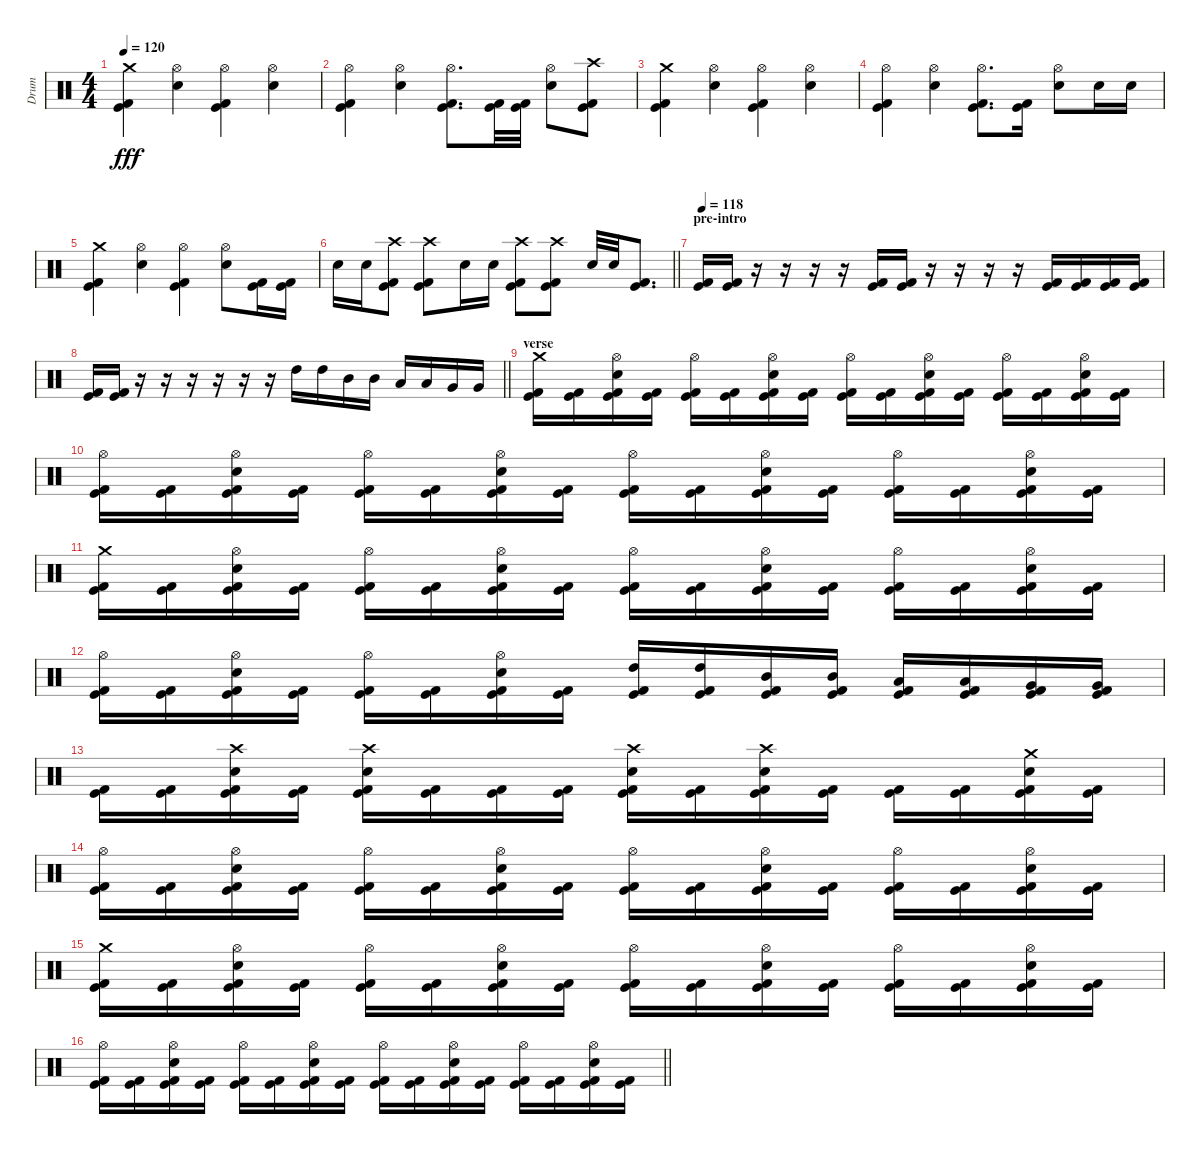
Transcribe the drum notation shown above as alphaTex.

\track ("Drum" "Drum") {instrument percussion}
\staff {score}
\articulation defaults
\ts (4 4)
\tempo 120
\clef neutral
\ks c
("Crash medium (hit)" "Kick (hit)" "Kick (hit) 2").4{dy fff} ("Electric Snare (hit)" "Hi-Hat (open)").4 ("Hi-Hat (open)" "Kick (hit)" "Kick (hit) 2").4 ("Electric Snare (hit)" "Hi-Hat (open)").4 |
("Hi-Hat (open)" "Kick (hit)" "Kick (hit) 2").4 ("Electric Snare (hit)" "Hi-Hat (open)").4 ("Hi-Hat (open)" "Kick (hit)" "Kick (hit) 2").8{d} ("Kick (hit)" "Kick (hit) 2").32 ("Kick (hit)" "Kick (hit) 2").32 ("Electric Snare (hit)" "Hi-Hat (open)").8 ("Crash high (hit)" "Kick (hit)" "Kick (hit) 2").8 |
("Crash medium (hit)" "Kick (hit)" "Kick (hit) 2").4 ("Electric Snare (hit)" "Hi-Hat (open)").4 ("Hi-Hat (open)" "Kick (hit)" "Kick (hit) 2").4 ("Electric Snare (hit)" "Hi-Hat (open)").4 |
("Hi-Hat (open)" "Kick (hit)" "Kick (hit) 2").4 ("Electric Snare (hit)" "Hi-Hat (open)").4 ("Hi-Hat (open)" "Kick (hit)" "Kick (hit) 2").8{d} ("Kick (hit)" "Kick (hit) 2").16 ("Electric Snare (hit)" "Hi-Hat (open)").8 "Electric Snare (hit)".16 "Electric Snare (hit)".16 |
("Crash medium (hit)" "Kick (hit)" "Kick (hit) 2").4 ("Electric Snare (hit)" "Hi-Hat (open)").4 ("Hi-Hat (open)" "Kick (hit)" "Kick (hit) 2").4 ("Electric Snare (hit)" "Hi-Hat (open)").8 ("Kick (hit)" "Kick (hit) 2").16 ("Kick (hit)" "Kick (hit) 2").16 |
\barLineRight lightlight "Electric Snare (hit)".16 "Electric Snare (hit)".16
("Crash high (hit)" "Kick (hit)" "Kick (hit) 2").8 ("Crash high (hit)" "Kick (hit)" "Kick (hit) 2").8 "Electric Snare (hit)".16 "Electric Snare (hit)".16 ("Crash high (hit)" "Kick (hit)" "Kick (hit) 2").8 ("Crash high (hit)" "Kick (hit)" "Kick (hit) 2").8 "Electric Snare (hit)".32 "Electric Snare (hit)".32 ("Kick (hit)" "Kick (hit) 2").8{d} |
\section ("" "pre-intro")
\tempo 118
("Kick (hit)" "Kick (hit) 2").16 ("Kick (hit)" "Kick (hit) 2").16 r.16 r.16 r.16 r.16 ("Kick (hit)" "Kick (hit) 2").16 ("Kick (hit)" "Kick (hit) 2").16 r.16 r.16 r.16 r.16 ("Kick (hit)" "Kick (hit) 2").16 ("Kick (hit)" "Kick (hit) 2").16 ("Kick (hit)" "Kick (hit) 2").16 ("Kick (hit)" "Kick (hit) 2").16 |
\barLineRight lightlight
("Kick (hit)" "Kick (hit) 2").16 ("Kick (hit)" "Kick (hit) 2").16 r.16 r.16 r.16 r.16 r.16 r.16 "High Tom (hit)".16 "High Tom (hit)".16 "Mid Tom (hit)".16 "Mid Tom (hit)".16 "Low Tom (hit)".16 "Low Tom (hit)".16 "Very Low Tom (hit)".16 "Very Low Tom (hit)".16 |
\section ("" "verse")
("Crash medium (hit)" "Kick (hit)" "Kick (hit) 2").16 ("Kick (hit)" "Kick (hit) 2").16 ("Hi-Hat (open)" "Electric Snare (hit)" "Kick (hit)" "Kick (hit) 2").16 ("Kick (hit)" "Kick (hit) 2").16 ("Hi-Hat (open)" "Kick (hit)" "Kick (hit) 2").16 ("Kick (hit)" "Kick (hit) 2").16 ("Hi-Hat (open)" "Electric Snare (hit)" "Kick (hit)" "Kick (hit) 2").16 ("Kick (hit)" "Kick (hit) 2").16 ("Hi-Hat (open)" "Kick (hit)" "Kick (hit) 2").16 ("Kick (hit)" "Kick (hit) 2").16 ("Hi-Hat (open)" "Electric Snare (hit)" "Kick (hit)" "Kick (hit) 2").16 ("Kick (hit)" "Kick (hit) 2").16 ("Hi-Hat (open)" "Kick (hit)" "Kick (hit) 2").16 ("Kick (hit)" "Kick (hit) 2").16 ("Hi-Hat (open)" "Electric Snare (hit)" "Kick (hit)" "Kick (hit) 2").16 ("Kick (hit)" "Kick (hit) 2").16 |
("Hi-Hat (open)" "Kick (hit)" "Kick (hit) 2").16 ("Kick (hit)" "Kick (hit) 2").16 ("Hi-Hat (open)" "Electric Snare (hit)" "Kick (hit)" "Kick (hit) 2").16 ("Kick (hit)" "Kick (hit) 2").16 ("Hi-Hat (open)" "Kick (hit)" "Kick (hit) 2").16 ("Kick (hit)" "Kick (hit) 2").16 ("Hi-Hat (open)" "Electric Snare (hit)" "Kick (hit)" "Kick (hit) 2").16 ("Kick (hit)" "Kick (hit) 2").16 ("Hi-Hat (open)" "Kick (hit)" "Kick (hit) 2").16 ("Kick (hit)" "Kick (hit) 2").16 ("Hi-Hat (open)" "Electric Snare (hit)" "Kick (hit)" "Kick (hit) 2").16 ("Kick (hit)" "Kick (hit) 2").16 ("Hi-Hat (open)" "Kick (hit)" "Kick (hit) 2").16 ("Kick (hit)" "Kick (hit) 2").16 ("Hi-Hat (open)" "Electric Snare (hit)" "Kick (hit)" "Kick (hit) 2").16 ("Kick (hit)" "Kick (hit) 2").16 |
("Crash medium (hit)" "Kick (hit)" "Kick (hit) 2").16 ("Kick (hit)" "Kick (hit) 2").16 ("Hi-Hat (open)" "Electric Snare (hit)" "Kick (hit)" "Kick (hit) 2").16 ("Kick (hit)" "Kick (hit) 2").16 ("Hi-Hat (open)" "Kick (hit)" "Kick (hit) 2").16 ("Kick (hit)" "Kick (hit) 2").16 ("Hi-Hat (open)" "Electric Snare (hit)" "Kick (hit)" "Kick (hit) 2").16 ("Kick (hit)" "Kick (hit) 2").16 ("Hi-Hat (open)" "Kick (hit)" "Kick (hit) 2").16 ("Kick (hit)" "Kick (hit) 2").16 ("Hi-Hat (open)" "Electric Snare (hit)" "Kick (hit)" "Kick (hit) 2").16 ("Kick (hit)" "Kick (hit) 2").16 ("Hi-Hat (open)" "Kick (hit)" "Kick (hit) 2").16 ("Kick (hit)" "Kick (hit) 2").16 ("Hi-Hat (open)" "Electric Snare (hit)" "Kick (hit)" "Kick (hit) 2").16 ("Kick (hit)" "Kick (hit) 2").16 |
("Hi-Hat (open)" "Kick (hit)" "Kick (hit) 2").16 ("Kick (hit)" "Kick (hit) 2").16 ("Hi-Hat (open)" "Electric Snare (hit)" "Kick (hit)" "Kick (hit) 2").16 ("Kick (hit)" "Kick (hit) 2").16 ("Hi-Hat (open)" "Kick (hit)" "Kick (hit) 2").16 ("Kick (hit)" "Kick (hit) 2").16 ("Hi-Hat (open)" "Electric Snare (hit)" "Kick (hit)" "Kick (hit) 2").16 ("Kick (hit)" "Kick (hit) 2").16 ("High Tom (hit)" "Kick (hit)" "Kick (hit) 2").16 ("High Tom (hit)" "Kick (hit)" "Kick (hit) 2").16 ("Mid Tom (hit)" "Kick (hit)" "Kick (hit) 2").16 ("Mid Tom (hit)" "Kick (hit)" "Kick (hit) 2").16 ("Low Tom (hit)" "Kick (hit)" "Kick (hit) 2").16 ("Low Tom (hit)" "Kick (hit)" "Kick (hit) 2").16 ("Very Low Tom (hit)" "Kick (hit)" "Kick (hit) 2").16 ("Very Low Tom (hit)" "Kick (hit)" "Kick (hit) 2").16 |
("Kick (hit)" "Kick (hit) 2").16 ("Kick (hit)" "Kick (hit) 2").16 ("Crash high (hit)" "Electric Snare (hit)" "Kick (hit)" "Kick (hit) 2").16 ("Kick (hit)" "Kick (hit) 2").16 ("Crash high (hit)" "Electric Snare (hit)" "Kick (hit)" "Kick (hit) 2").16 ("Kick (hit)" "Kick (hit) 2").16 ("Kick (hit)" "Kick (hit) 2").16 ("Kick (hit)" "Kick (hit) 2").16 ("Crash high (hit)" "Electric Snare (hit)" "Kick (hit)" "Kick (hit) 2").16 ("Kick (hit)" "Kick (hit) 2").16 ("Crash high (hit)" "Electric Snare (hit)" "Kick (hit)" "Kick (hit) 2").16 ("Kick (hit)" "Kick (hit) 2").16 ("Kick (hit)" "Kick (hit) 2").16 ("Kick (hit)" "Kick (hit) 2").16 ("Crash medium (hit)" "Electric Snare (hit)" "Kick (hit)" "Kick (hit) 2").16 ("Kick (hit)" "Kick (hit) 2").16 |
("Hi-Hat (open)" "Kick (hit)" "Kick (hit) 2").16 ("Kick (hit)" "Kick (hit) 2").16 ("Hi-Hat (open)" "Electric Snare (hit)" "Kick (hit)" "Kick (hit) 2").16 ("Kick (hit)" "Kick (hit) 2").16 ("Hi-Hat (open)" "Kick (hit)" "Kick (hit) 2").16 ("Kick (hit)" "Kick (hit) 2").16 ("Hi-Hat (open)" "Electric Snare (hit)" "Kick (hit)" "Kick (hit) 2").16 ("Kick (hit)" "Kick (hit) 2").16 ("Hi-Hat (open)" "Kick (hit)" "Kick (hit) 2").16 ("Kick (hit)" "Kick (hit) 2").16 ("Hi-Hat (open)" "Electric Snare (hit)" "Kick (hit)" "Kick (hit) 2").16 ("Kick (hit)" "Kick (hit) 2").16 ("Hi-Hat (open)" "Kick (hit)" "Kick (hit) 2").16 ("Kick (hit)" "Kick (hit) 2").16 ("Hi-Hat (open)" "Electric Snare (hit)" "Kick (hit)" "Kick (hit) 2").16 ("Kick (hit)" "Kick (hit) 2").16 |
("Crash medium (hit)" "Kick (hit)" "Kick (hit) 2").16 ("Kick (hit)" "Kick (hit) 2").16 ("Hi-Hat (open)" "Electric Snare (hit)" "Kick (hit)" "Kick (hit) 2").16 ("Kick (hit)" "Kick (hit) 2").16 ("Hi-Hat (open)" "Kick (hit)" "Kick (hit) 2").16 ("Kick (hit)" "Kick (hit) 2").16 ("Hi-Hat (open)" "Electric Snare (hit)" "Kick (hit)" "Kick (hit) 2").16 ("Kick (hit)" "Kick (hit) 2").16 ("Hi-Hat (open)" "Kick (hit)" "Kick (hit) 2").16 ("Kick (hit)" "Kick (hit) 2").16 ("Hi-Hat (open)" "Electric Snare (hit)" "Kick (hit)" "Kick (hit) 2").16 ("Kick (hit)" "Kick (hit) 2").16 ("Hi-Hat (open)" "Kick (hit)" "Kick (hit) 2").16 ("Kick (hit)" "Kick (hit) 2").16 ("Hi-Hat (open)" "Electric Snare (hit)" "Kick (hit)" "Kick (hit) 2").16 ("Kick (hit)" "Kick (hit) 2").16 |
\barLineRight lightlight
("Hi-Hat (open)" "Kick (hit)" "Kick (hit) 2").16 ("Kick (hit)" "Kick (hit) 2").16 ("Hi-Hat (open)" "Electric Snare (hit)" "Kick (hit)" "Kick (hit) 2").16 ("Kick (hit)" "Kick (hit) 2").16 ("Hi-Hat (open)" "Kick (hit)" "Kick (hit) 2").16 ("Kick (hit)" "Kick (hit) 2").16 ("Hi-Hat (open)" "Electric Snare (hit)" "Kick (hit)" "Kick (hit) 2").16 ("Kick (hit)" "Kick (hit) 2").16 ("Hi-Hat (open)" "Kick (hit)" "Kick (hit) 2").16 ("Kick (hit)" "Kick (hit) 2").16 ("Hi-Hat (open)" "Electric Snare (hit)" "Kick (hit)" "Kick (hit) 2").16 ("Kick (hit)" "Kick (hit) 2").16 ("Hi-Hat (open)" "Kick (hit)" "Kick (hit) 2").16 ("Kick (hit)" "Kick (hit) 2").16 ("Hi-Hat (open)" "Electric Snare (hit)" "Kick (hit)" "Kick (hit) 2").16 ("Kick (hit)" "Kick (hit) 2").16
